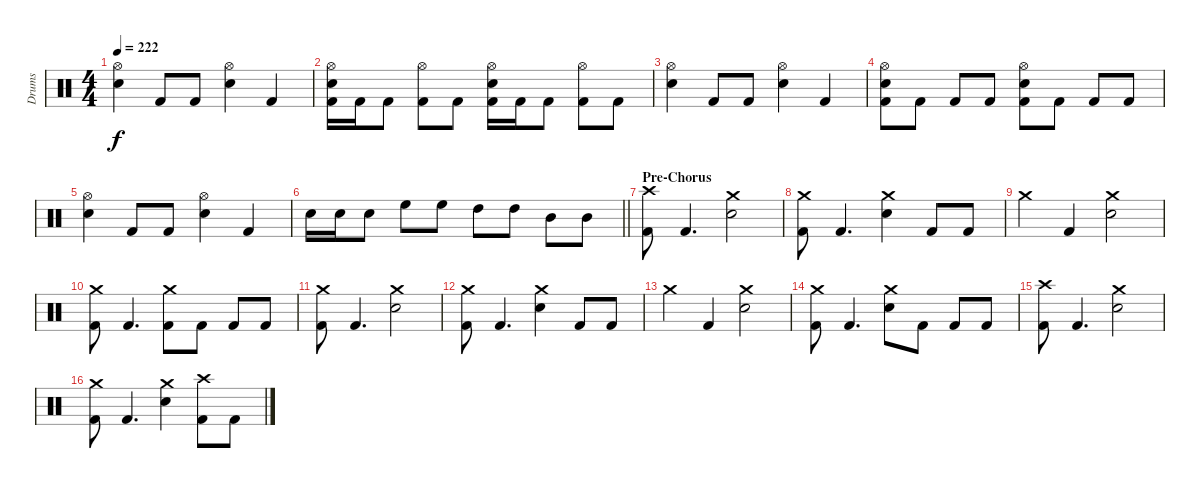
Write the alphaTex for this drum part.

\track ("Drums" "Drums") {instrument percussion}
\staff {score}
\articulation defaults
\ts (4 4)
\tempo 222
\clef neutral
\ks c
("Hi-Hat (open)" "Snare (hit) 2").4{dy f} "Kick (hit) 2".8 "Kick (hit) 2".8 ("Hi-Hat (open)" "Snare (hit) 2").4 "Kick (hit) 2".4 |
("Hi-Hat (open)" "Snare (hit) 2" "Kick (hit) 2").16 "Kick (hit) 2".16 "Kick (hit) 2".8 ("Hi-Hat (open)" "Kick (hit) 2").8 "Kick (hit) 2".8 ("Hi-Hat (open)" "Snare (hit) 2" "Kick (hit) 2").16 "Kick (hit) 2".16 "Kick (hit) 2".8 ("Hi-Hat (open)" "Kick (hit) 2").8 "Kick (hit) 2".8 |
("Hi-Hat (open)" "Snare (hit) 2").4 "Kick (hit) 2".8 "Kick (hit) 2".8 ("Hi-Hat (open)" "Snare (hit) 2").4 "Kick (hit) 2".4 |
("Hi-Hat (open)" "Snare (hit) 2" "Kick (hit) 2").8 "Kick (hit) 2".8 "Kick (hit) 2".8 "Kick (hit) 2".8 ("Hi-Hat (open)" "Snare (hit) 2" "Kick (hit) 2").8 "Kick (hit) 2".8 "Kick (hit) 2".8 "Kick (hit) 2".8 |
("Hi-Hat (open)" "Snare (hit) 2").4 "Kick (hit) 2".8 "Kick (hit) 2".8 ("Hi-Hat (open)" "Snare (hit) 2").4 "Kick (hit) 2".4 |
\barLineRight lightlight "Snare (hit) 2".16 "Snare (hit) 2".16 "Snare (hit) 2".8 "High Floor Tom (hit)".8 "High Floor Tom (hit)".8 "High Tom (hit)".8 "High Tom (hit)".8 "Mid Tom (hit)".8 "Mid Tom (hit)".8
|
\section ("" "Pre-Chorus")
("Crash high (hit)" "Kick (hit) 2").8 "Kick (hit) 2".4{d} ("Crash medium (hit)" "Snare (hit) 2").2 |
("Crash medium (hit)" "Kick (hit) 2").8 "Kick (hit) 2".4{d} ("Crash medium (hit)" "Snare (hit) 2").4 "Kick (hit) 2".8 "Kick (hit) 2".8 |
"Crash medium (hit)".4 "Kick (hit) 2".4 ("Crash medium (hit)" "Snare (hit) 2").2 |
("Crash medium (hit)" "Kick (hit) 2").8 "Kick (hit) 2".4{d} ("Crash medium (hit)" "Kick (hit) 2").8 "Kick (hit) 2".8 "Kick (hit) 2".8 "Kick (hit) 2".8 |
("Crash medium (hit)" "Kick (hit) 2").8 "Kick (hit) 2".4{d} ("Crash medium (hit)" "Snare (hit) 2").2 |
("Crash medium (hit)" "Kick (hit) 2").8 "Kick (hit) 2".4{d} ("Crash medium (hit)" "Snare (hit) 2").4 "Kick (hit) 2".8 "Kick (hit) 2".8 |
"Crash medium (hit)".4 "Kick (hit) 2".4 ("Crash medium (hit)" "Snare (hit) 2").2 |
("Crash medium (hit)" "Kick (hit) 2").8 "Kick (hit) 2".4{d} ("Crash medium (hit)" "Snare (hit) 2").8 "Kick (hit) 2".8 "Kick (hit) 2".8 "Kick (hit) 2".8 |
("Crash high (hit)" "Kick (hit) 2").8 "Kick (hit) 2".4{d} ("Crash medium (hit)" "Snare (hit) 2").2 |
("Crash medium (hit)" "Kick (hit) 2").8 "Kick (hit) 2".4{d} ("Crash medium (hit)" "Snare (hit) 2").4 ("Crash high (hit)" "Kick (hit) 2").8 "Kick (hit) 2".8
